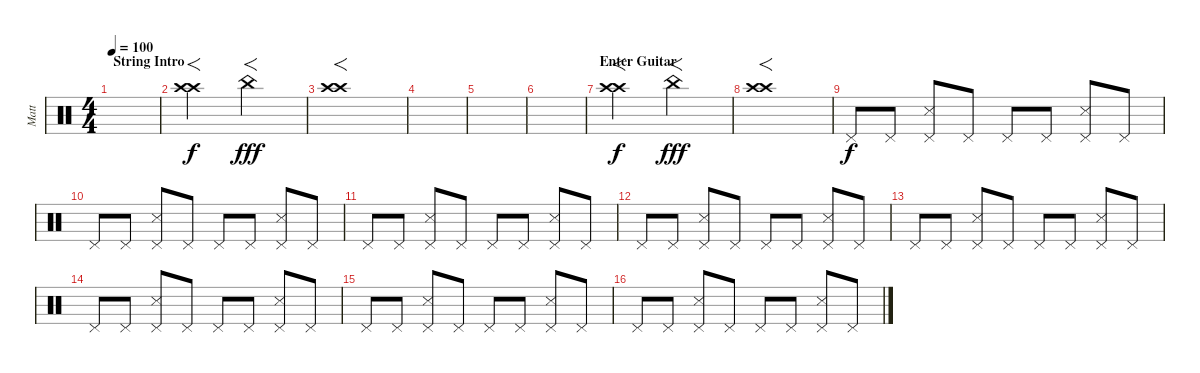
\track ("Matt" "Matt") {instrument percussion}
\staff {score}
\articulation defaults
\ts (4 4)
\section ("" "String Intro")
\tempo 100
\clef neutral
\ks c
|
("Crash high (hit)" "Crash high (hit)").2{f} "China (hit)".2{f dy fff} |
("Crash high (hit)" "Crash high (hit)").1{f} |
|
|
|
\section ("" "Enter Guitar")
("Crash high (hit)" "Crash high (hit)").2{f dy f} "China (hit)".2{f dy fff} |
("Crash high (hit)" "Crash high (hit)").1{f} |
"Pedal Hi-Hat (hit)".8{dy f volume 6} "Pedal Hi-Hat (hit)".8 ("Pedal Hi-Hat (hit)" "Snare (side stick) 3").8 "Pedal Hi-Hat (hit)".8 "Pedal Hi-Hat (hit)".8 "Pedal Hi-Hat (hit)".8{volume 7} ("Pedal Hi-Hat (hit)" "Snare (side stick) 3").8 "Pedal Hi-Hat (hit)".8 |
"Pedal Hi-Hat (hit)".8 "Pedal Hi-Hat (hit)".8{volume 8} ("Pedal Hi-Hat (hit)" "Snare (side stick) 3").8 "Pedal Hi-Hat (hit)".8 "Pedal Hi-Hat (hit)".8 "Pedal Hi-Hat (hit)".8{volume 9} ("Pedal Hi-Hat (hit)" "Snare (side stick) 3").8 "Pedal Hi-Hat (hit)".8 |
"Pedal Hi-Hat (hit)".8 "Pedal Hi-Hat (hit)".8{volume 10} ("Pedal Hi-Hat (hit)" "Snare (side stick) 3").8 "Pedal Hi-Hat (hit)".8 "Pedal Hi-Hat (hit)".8 "Pedal Hi-Hat (hit)".8{volume 11} ("Pedal Hi-Hat (hit)" "Snare (side stick) 3").8 "Pedal Hi-Hat (hit)".8 |
"Pedal Hi-Hat (hit)".8 "Pedal Hi-Hat (hit)".8{volume 12} ("Pedal Hi-Hat (hit)" "Snare (side stick) 3").8 "Pedal Hi-Hat (hit)".8 "Pedal Hi-Hat (hit)".8 "Pedal Hi-Hat (hit)".8{volume 13} ("Pedal Hi-Hat (hit)" "Snare (side stick) 3").8 "Pedal Hi-Hat (hit)".8 |
"Pedal Hi-Hat (hit)".8 "Pedal Hi-Hat (hit)".8{volume 13} ("Pedal Hi-Hat (hit)" "Snare (side stick) 3").8 "Pedal Hi-Hat (hit)".8 "Pedal Hi-Hat (hit)".8 "Pedal Hi-Hat (hit)".8 ("Pedal Hi-Hat (hit)" "Snare (side stick) 3").8{volume 14} "Pedal Hi-Hat (hit)".8 |
"Pedal Hi-Hat (hit)".8 "Pedal Hi-Hat (hit)".8 ("Pedal Hi-Hat (hit)" "Snare (side stick) 3").8 "Pedal Hi-Hat (hit)".8{volume 16} "Pedal Hi-Hat (hit)".8 "Pedal Hi-Hat (hit)".8 ("Pedal Hi-Hat (hit)" "Snare (side stick) 3").8 "Pedal Hi-Hat (hit)".8 |
"Pedal Hi-Hat (hit)".8 "Pedal Hi-Hat (hit)".8 ("Pedal Hi-Hat (hit)" "Snare (side stick) 3").8 "Pedal Hi-Hat (hit)".8 "Pedal Hi-Hat (hit)".8 "Pedal Hi-Hat (hit)".8 ("Pedal Hi-Hat (hit)" "Snare (side stick) 3").8 "Pedal Hi-Hat (hit)".8 |
"Pedal Hi-Hat (hit)".8 "Pedal Hi-Hat (hit)".8 ("Pedal Hi-Hat (hit)" "Snare (side stick) 3").8 "Pedal Hi-Hat (hit)".8 "Pedal Hi-Hat (hit)".8 "Pedal Hi-Hat (hit)".8 ("Pedal Hi-Hat (hit)" "Snare (side stick) 3").8 "Pedal Hi-Hat (hit)".8
